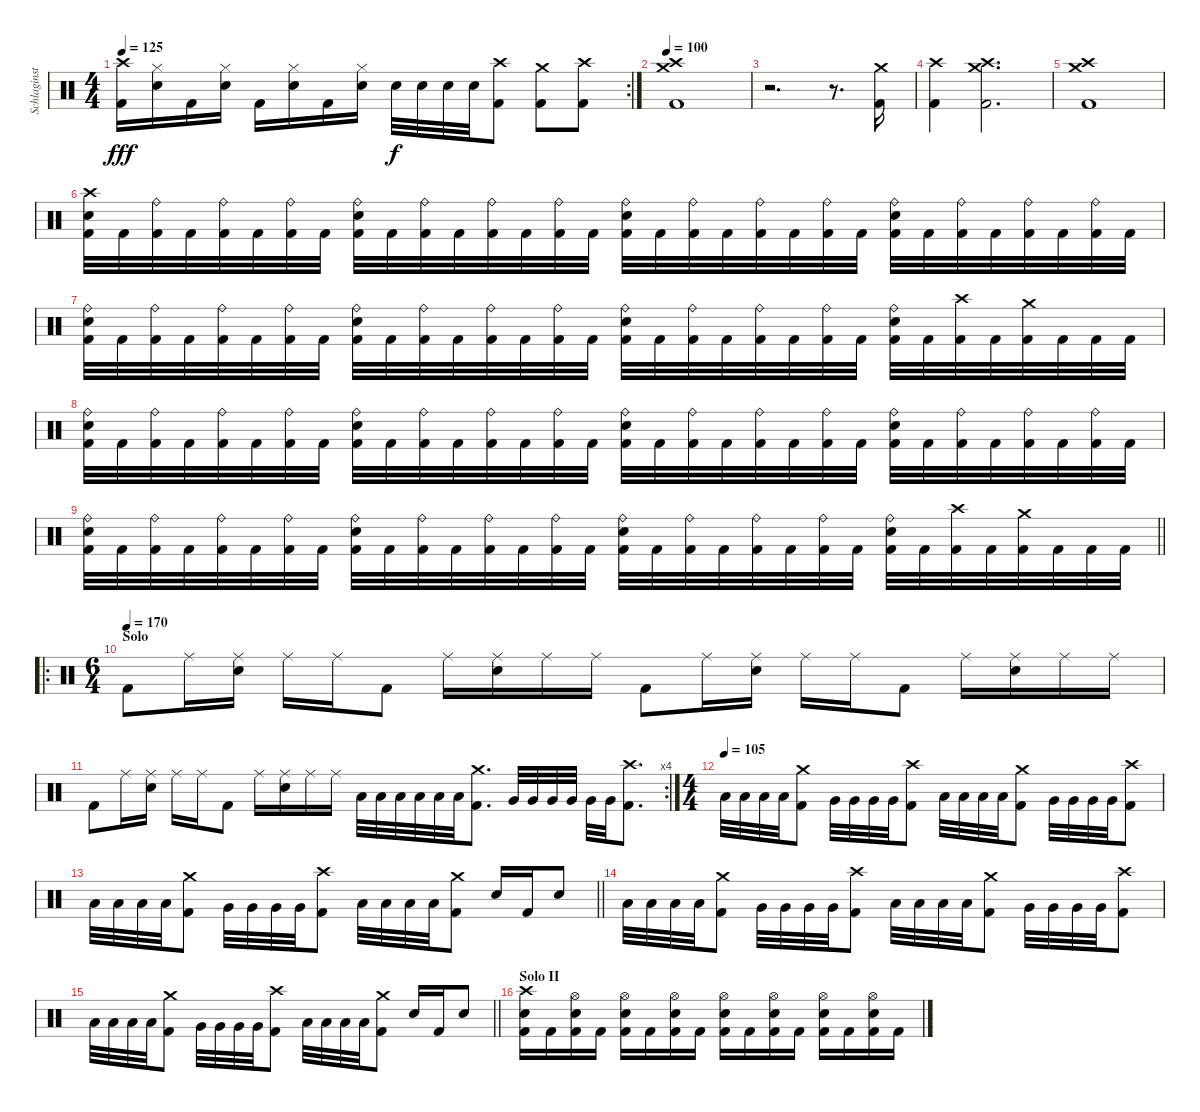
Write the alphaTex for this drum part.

\track ("Schlaginstrumente - Auswahl" "Schlaginst") {instrument percussion}
\staff {score}
\articulation defaults
\rc 2
\ts (4 4)
\tempo 125
\clef neutral
\ks c
("Crash high (hit)" "Kick (hit) 2").16{dy fff} ("Hi-Hat (closed)" "Electric Snare (hit)").16 "Kick (hit) 2".16 ("Hi-Hat (closed)" "Electric Snare (hit)").16 "Kick (hit) 2".16 ("Hi-Hat (closed)" "Electric Snare (hit)").16 "Kick (hit) 2".16 ("Hi-Hat (closed)" "Electric Snare (hit)").16 "Electric Snare (hit)".32{dy f} "Electric Snare (hit)".32 "Electric Snare (hit)".32 "Electric Snare (hit)".32 ("Crash high (hit)" "Kick (hit) 2").8 ("Crash medium (hit)" "Kick (hit) 2").8 ("Crash high (hit)" "Kick (hit) 2").8 |
\tempo 100
("Crash medium (hit)" "Crash high (hit)" "Kick (hit) 2").1 |
r.2{d} r.8{d} ("Crash medium (hit)" "Kick (hit) 2").16 |
("Crash high (hit)" "Kick (hit) 2").4 ("Crash medium (hit)" "Crash high (hit)" "Kick (hit) 2").2{d} |
("Crash medium (hit)" "Crash high (hit)" "Kick (hit) 2").1 |
("Crash high (hit)" "Electric Snare (hit)" "Kick (hit) 2").32 "Kick (hit) 2".32 ("Ride (bell)" "Kick (hit) 2").32 "Kick (hit) 2".32 ("Ride (bell)" "Kick (hit) 2").32 "Kick (hit) 2".32 ("Ride (bell)" "Kick (hit) 2").32 "Kick (hit) 2".32 ("Ride (bell)" "Electric Snare (hit)" "Kick (hit) 2").32 "Kick (hit) 2".32 ("Ride (bell)" "Kick (hit) 2").32 "Kick (hit) 2".32 ("Ride (bell)" "Kick (hit) 2").32 "Kick (hit) 2".32 ("Ride (bell)" "Kick (hit) 2").32 "Kick (hit) 2".32 ("Ride (bell)" "Electric Snare (hit)" "Kick (hit) 2").32 "Kick (hit) 2".32 ("Ride (bell)" "Kick (hit) 2").32 "Kick (hit) 2".32 ("Ride (bell)" "Kick (hit) 2").32 "Kick (hit) 2".32 ("Ride (bell)" "Kick (hit) 2").32 "Kick (hit) 2".32 ("Ride (bell)" "Electric Snare (hit)" "Kick (hit) 2").32 "Kick (hit) 2".32 ("Ride (bell)" "Kick (hit) 2").32 "Kick (hit) 2".32 ("Ride (bell)" "Kick (hit) 2").32 "Kick (hit) 2".32 ("Ride (bell)" "Kick (hit) 2").32 "Kick (hit) 2".32 |
("Ride (bell)" "Electric Snare (hit)" "Kick (hit) 2").32 "Kick (hit) 2".32 ("Ride (bell)" "Kick (hit) 2").32 "Kick (hit) 2".32 ("Ride (bell)" "Kick (hit) 2").32 "Kick (hit) 2".32 ("Ride (bell)" "Kick (hit) 2").32 "Kick (hit) 2".32 ("Ride (bell)" "Electric Snare (hit)" "Kick (hit) 2").32 "Kick (hit) 2".32 ("Ride (bell)" "Kick (hit) 2").32 "Kick (hit) 2".32 ("Ride (bell)" "Kick (hit) 2").32 "Kick (hit) 2".32 ("Ride (bell)" "Kick (hit) 2").32 "Kick (hit) 2".32 ("Ride (bell)" "Electric Snare (hit)" "Kick (hit) 2").32 "Kick (hit) 2".32 ("Ride (bell)" "Kick (hit) 2").32 "Kick (hit) 2".32 ("Ride (bell)" "Kick (hit) 2").32 "Kick (hit) 2".32 ("Ride (bell)" "Kick (hit) 2").32 "Kick (hit) 2".32 ("Ride (bell)" "Electric Snare (hit)" "Kick (hit) 2").32 "Kick (hit) 2".32 ("Crash high (hit)" "Kick (hit) 2").32 "Kick (hit) 2".32 ("Crash medium (hit)" "Kick (hit) 2").32 "Kick (hit) 2".32 "Kick (hit) 2".32 "Kick (hit) 2".32 |
("Ride (bell)" "Electric Snare (hit)" "Kick (hit) 2").32 "Kick (hit) 2".32 ("Ride (bell)" "Kick (hit) 2").32 "Kick (hit) 2".32 ("Ride (bell)" "Kick (hit) 2").32 "Kick (hit) 2".32 ("Ride (bell)" "Kick (hit) 2").32 "Kick (hit) 2".32 ("Ride (bell)" "Electric Snare (hit)" "Kick (hit) 2").32 "Kick (hit) 2".32 ("Ride (bell)" "Kick (hit) 2").32 "Kick (hit) 2".32 ("Ride (bell)" "Kick (hit) 2").32 "Kick (hit) 2".32 ("Ride (bell)" "Kick (hit) 2").32 "Kick (hit) 2".32 ("Ride (bell)" "Electric Snare (hit)" "Kick (hit) 2").32 "Kick (hit) 2".32 ("Ride (bell)" "Kick (hit) 2").32 "Kick (hit) 2".32 ("Ride (bell)" "Kick (hit) 2").32 "Kick (hit) 2".32 ("Ride (bell)" "Kick (hit) 2").32 "Kick (hit) 2".32 ("Ride (bell)" "Electric Snare (hit)" "Kick (hit) 2").32 "Kick (hit) 2".32 ("Ride (bell)" "Kick (hit) 2").32 "Kick (hit) 2".32 ("Ride (bell)" "Kick (hit) 2").32 "Kick (hit) 2".32 ("Ride (bell)" "Kick (hit) 2").32 "Kick (hit) 2".32 |
\barLineRight lightlight
("Ride (bell)" "Electric Snare (hit)" "Kick (hit) 2").32 "Kick (hit) 2".32 ("Ride (bell)" "Kick (hit) 2").32 "Kick (hit) 2".32 ("Ride (bell)" "Kick (hit) 2").32 "Kick (hit) 2".32 ("Ride (bell)" "Kick (hit) 2").32 "Kick (hit) 2".32 ("Ride (bell)" "Electric Snare (hit)" "Kick (hit) 2").32 "Kick (hit) 2".32 ("Ride (bell)" "Kick (hit) 2").32 "Kick (hit) 2".32 ("Ride (bell)" "Kick (hit) 2").32 "Kick (hit) 2".32 ("Ride (bell)" "Kick (hit) 2").32 "Kick (hit) 2".32 ("Ride (bell)" "Electric Snare (hit)" "Kick (hit) 2").32 "Kick (hit) 2".32 ("Ride (bell)" "Kick (hit) 2").32 "Kick (hit) 2".32 ("Ride (bell)" "Kick (hit) 2").32 "Kick (hit) 2".32 ("Ride (bell)" "Kick (hit) 2").32 "Kick (hit) 2".32 ("Ride (bell)" "Electric Snare (hit)" "Kick (hit) 2").32 "Kick (hit) 2".32 ("Crash high (hit)" "Kick (hit) 2").32 "Kick (hit) 2".32 ("Crash medium (hit)" "Kick (hit) 2").32 "Kick (hit) 2".32 "Kick (hit) 2".32 "Kick (hit) 2".32 |
\ro
\ts (6 4)
\section ("" "Solo")
\tempo (170)
"Kick (hit) 2".8 "Ride (middle)".16 ("Ride (middle)" "Electric Snare (hit)").16 "Ride (middle)".16 "Ride (middle)".16 "Kick (hit) 2".8 "Ride (middle)".16 ("Ride (middle)" "Electric Snare (hit)").16 "Ride (middle)".16 "Ride (middle)".16 "Kick (hit) 2".8 "Ride (middle)".16 ("Ride (middle)" "Electric Snare (hit)").16 "Ride (middle)".16 "Ride (middle)".16 "Kick (hit) 2".8 "Ride (middle)".16 ("Ride (middle)" "Electric Snare (hit)").16 "Ride (middle)".16 "Ride (middle)".16 |
\rc 4 "Kick (hit) 2".8 "Ride (middle)".16
("Ride (middle)" "Electric Snare (hit)").16 "Ride (middle)".16 "Ride (middle)".16 "Kick (hit) 2".8 "Ride (middle)".16 ("Ride (middle)" "Electric Snare (hit)").16 "Ride (middle)".16 "Ride (middle)".16 "Low Tom (hit)".32 "Low Tom (hit)".32 "Low Tom (hit)".32 "Low Tom (hit)".32 "Low Tom (hit)".32 "Low Tom (hit)".32 ("Crash medium (hit)" "Kick (hit) 2").8{d} "Very Low Tom (hit)".32 "Very Low Tom (hit)".32 "Very Low Tom (hit)".32 "Very Low Tom (hit)".32 "Very Low Tom (hit)".32 "Very Low Tom (hit)".32 ("Crash high (hit)" "Kick (hit) 2").8{d} |
\ts (4 4)
\tempo (105)
"Low Tom (hit)".32 "Low Tom (hit)".32 "Low Tom (hit)".32 "Low Tom (hit)".32 ("Crash medium (hit)" "Kick (hit) 2").8 "Very Low Tom (hit)".32 "Very Low Tom (hit)".32 "Very Low Tom (hit)".32 "Very Low Tom (hit)".32 ("Crash high (hit)" "Kick (hit) 2").8 "Low Tom (hit)".32 "Low Tom (hit)".32 "Low Tom (hit)".32 "Low Tom (hit)".32 ("Crash medium (hit)" "Kick (hit) 2").8 "Very Low Tom (hit)".32 "Very Low Tom (hit)".32 "Very Low Tom (hit)".32 "Very Low Tom (hit)".32 ("Crash high (hit)" "Kick (hit) 2").8 |
\barLineRight lightlight "Low Tom (hit)".32 "Low Tom (hit)".32 "Low Tom (hit)".32 "Low Tom (hit)".32
("Crash medium (hit)" "Kick (hit) 2").8 "Very Low Tom (hit)".32 "Very Low Tom (hit)".32 "Very Low Tom (hit)".32 "Very Low Tom (hit)".32 ("Crash high (hit)" "Kick (hit) 2").8 "Low Tom (hit)".32 "Low Tom (hit)".32 "Low Tom (hit)".32 "Low Tom (hit)".32 ("Crash medium (hit)" "Kick (hit) 2").8 "Electric Snare (hit)".16 "Kick (hit) 2".16 "Electric Snare (hit)".8 |
"Low Tom (hit)".32 "Low Tom (hit)".32 "Low Tom (hit)".32 "Low Tom (hit)".32 ("Crash medium (hit)" "Kick (hit) 2").8 "Very Low Tom (hit)".32 "Very Low Tom (hit)".32 "Very Low Tom (hit)".32 "Very Low Tom (hit)".32 ("Crash high (hit)" "Kick (hit) 2").8 "Low Tom (hit)".32 "Low Tom (hit)".32 "Low Tom (hit)".32 "Low Tom (hit)".32 ("Crash medium (hit)" "Kick (hit) 2").8 "Very Low Tom (hit)".32 "Very Low Tom (hit)".32 "Very Low Tom (hit)".32 "Very Low Tom (hit)".32 ("Crash high (hit)" "Kick (hit) 2").8 |
\barLineRight lightlight "Low Tom (hit)".32 "Low Tom (hit)".32 "Low Tom (hit)".32 "Low Tom (hit)".32
("Crash medium (hit)" "Kick (hit) 2").8 "Very Low Tom (hit)".32 "Very Low Tom (hit)".32 "Very Low Tom (hit)".32 "Very Low Tom (hit)".32 ("Crash high (hit)" "Kick (hit) 2").8 "Low Tom (hit)".32 "Low Tom (hit)".32 "Low Tom (hit)".32 "Low Tom (hit)".32 ("Crash medium (hit)" "Kick (hit) 2").8 "Electric Snare (hit)".16 "Kick (hit) 2".16 "Electric Snare (hit)".8 |
\section ("" "Solo II")
("Crash high (hit)" "Electric Snare (hit)" "Kick (hit) 2").16 "Kick (hit) 2".16 ("Hi-Hat (open)" "Electric Snare (hit)" "Kick (hit) 2").16 "Kick (hit) 2".16 ("Hi-Hat (open)" "Electric Snare (hit)" "Kick (hit) 2").16 "Kick (hit) 2".16 ("Hi-Hat (open)" "Electric Snare (hit)" "Kick (hit) 2").16 "Kick (hit) 2".16 ("Hi-Hat (open)" "Electric Snare (hit)" "Kick (hit) 2").16 "Kick (hit) 2".16 ("Hi-Hat (open)" "Electric Snare (hit)" "Kick (hit) 2").16 "Kick (hit) 2".16 ("Hi-Hat (open)" "Electric Snare (hit)" "Kick (hit) 2").16 "Kick (hit) 2".16 ("Hi-Hat (open)" "Electric Snare (hit)" "Kick (hit) 2").16 "Kick (hit) 2".16
